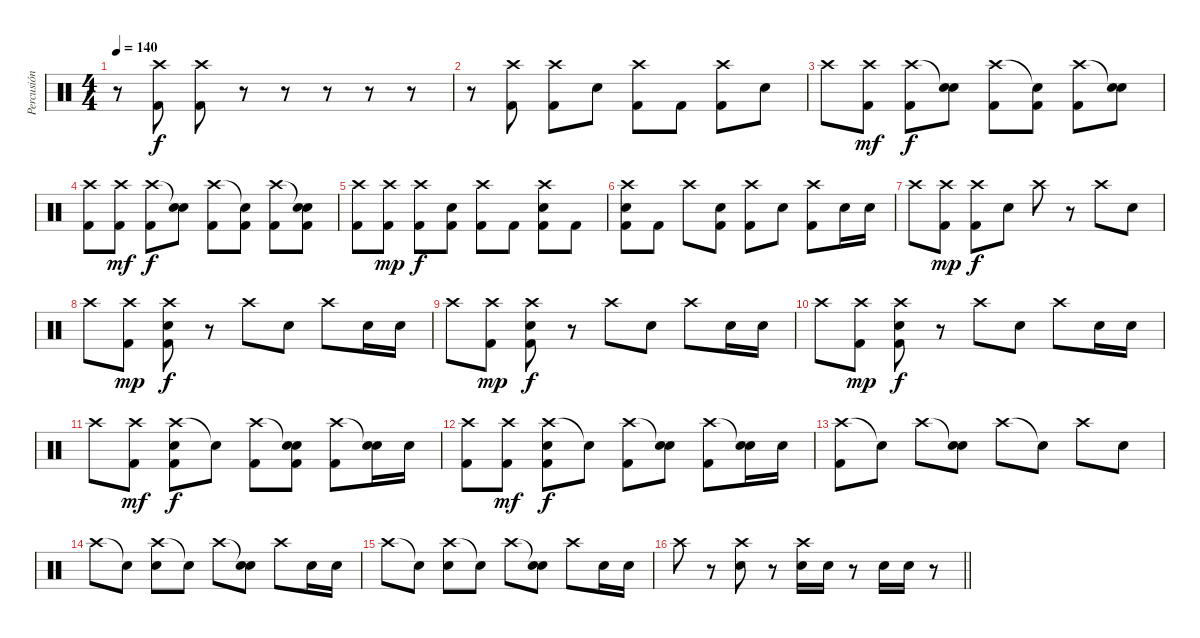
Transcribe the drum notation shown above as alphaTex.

\track ("Percusión" "Percusión") {instrument percussion}
\staff {score}
\articulation defaults
\ts (4 4)
\tempo 140
\clef neutral
\ks c
r.8{dy f} ("Crash high (hit)" "Kick (hit) 2").8 ("Crash high (hit)" "Kick (hit) 2").8 r.8 r.8 r.8 r.8 r.8 |
r.8 ("Crash high (hit)" "Kick (hit) 2").8 ("Crash high (hit)" "Kick (hit) 2").8 "Electric Snare (hit)".8 ("Crash high (hit)" "Kick (hit) 2").8 "Kick (hit) 2".8 ("Crash high (hit)" "Kick (hit) 2").8 "Electric Snare (hit)".8 |
"Crash high (hit)".8 ("Crash high (hit)" "Kick (hit) 2").8{dy mf} ("Crash high (hit)" "Kick (hit) 2").8{dy f} ("Snare (hit)"{t} "Electric Snare (hit)").8 ("Crash high (hit)" "Kick (hit) 2").8 ("Snare (hit)"{t} "Kick (hit) 2").8 ("Crash high (hit)" "Kick (hit) 2").8 ("Snare (hit)"{t} "Electric Snare (hit)").8 |
("Crash high (hit)" "Kick (hit) 2").8 ("Crash high (hit)" "Kick (hit) 2").8{dy mf} ("Crash high (hit)" "Kick (hit) 2").8{dy f} ("Snare (hit)"{t} "Electric Snare (hit)").8 ("Crash high (hit)" "Kick (hit) 2").8 ("Snare (hit)"{t} "Kick (hit) 2").8 ("Crash high (hit)" "Kick (hit) 2").8 ("Snare (hit)"{t} "Electric Snare (hit)" "Kick (hit) 2").8 |
("Crash high (hit)" "Kick (hit) 2").8 ("Crash high (hit)" "Kick (hit) 2").8{dy mp} ("Crash high (hit)" "Kick (hit) 2").8{dy f} ("Electric Snare (hit)" "Kick (hit) 2").8 ("Crash high (hit)" "Kick (hit) 2").8 "Kick (hit) 2".8 ("Crash high (hit)" "Electric Snare (hit)" "Kick (hit) 2").8 "Kick (hit) 2".8 |
("Crash high (hit)" "Electric Snare (hit)" "Kick (hit) 2").8 "Kick (hit) 2".8 "Crash high (hit)".8 ("Electric Snare (hit)" "Kick (hit) 2").8 ("Crash high (hit)" "Kick (hit) 2").8 "Electric Snare (hit)".8 ("Crash high (hit)" "Kick (hit) 2").8 "Electric Snare (hit)".16 "Electric Snare (hit)".16 |
"Crash high (hit)".8 ("Crash high (hit)" "Kick (hit) 2").8{dy mp} ("Crash high (hit)" "Kick (hit) 2").8{dy f} "Electric Snare (hit)".8 "Crash high (hit)".8 r.8 "Crash high (hit)".8 "Electric Snare (hit)".8 |
"Crash high (hit)".8 ("Crash high (hit)" "Kick (hit) 2").8{dy mp} ("Crash high (hit)" "Electric Snare (hit)" "Kick (hit) 2").8{dy f} r.8 "Crash high (hit)".8 "Electric Snare (hit)".8 "Crash high (hit)".8 "Electric Snare (hit)".16 "Electric Snare (hit)".16 |
"Crash high (hit)".8 ("Crash high (hit)" "Kick (hit) 2").8{dy mp} ("Crash high (hit)" "Electric Snare (hit)" "Kick (hit) 2").8{dy f} r.8 "Crash high (hit)".8 "Electric Snare (hit)".8 "Crash high (hit)".8 "Electric Snare (hit)".16 "Electric Snare (hit)".16 |
"Crash high (hit)".8 ("Crash high (hit)" "Kick (hit) 2").8{dy mp} ("Crash high (hit)" "Electric Snare (hit)" "Kick (hit) 2").8{dy f} r.8 "Crash high (hit)".8 "Electric Snare (hit)".8 "Crash high (hit)".8 "Electric Snare (hit)".16 "Electric Snare (hit)".16 |
"Crash high (hit)".8 ("Crash high (hit)" "Kick (hit) 2").8{dy mf} ("Crash high (hit)" "Electric Snare (hit)" "Kick (hit) 2").8{dy f} "Snare (hit)"{t}.8 ("Crash high (hit)" "Kick (hit) 2").8 ("Snare (hit)"{t} "Electric Snare (hit)" "Kick (hit) 2").8 ("Crash high (hit)" "Kick (hit) 2").8 ("Snare (hit)"{t} "Electric Snare (hit)").16 "Electric Snare (hit)".16 |
("Crash high (hit)" "Kick (hit) 2").8 ("Crash high (hit)" "Kick (hit) 2").8{dy mf} ("Crash high (hit)" "Electric Snare (hit)" "Kick (hit) 2").8{dy f} "Snare (hit)"{t}.8 ("Crash high (hit)" "Kick (hit) 2").8 ("Snare (hit)"{t} "Electric Snare (hit)").8 ("Crash high (hit)" "Kick (hit) 2").8 ("Snare (hit)"{t} "Electric Snare (hit)").16 "Electric Snare (hit)".16 |
("Crash high (hit)" "Kick (hit) 2").8 "Snare (hit)"{t}.8 "Crash high (hit)".8 ("Snare (hit)"{t} "Electric Snare (hit)").8 "Crash high (hit)".8 "Snare (hit)"{t}.8 "Crash high (hit)".8 "Electric Snare (hit)".8 |
"Crash high (hit)".8 "Snare (hit)"{t}.8 ("Crash high (hit)" "Electric Snare (hit)").8 "Snare (hit)"{t}.8 "Crash high (hit)".8 ("Snare (hit)"{t} "Electric Snare (hit)").8 "Crash high (hit)".8 "Electric Snare (hit)".16 "Electric Snare (hit)".16 |
"Crash high (hit)".8 "Snare (hit)"{t}.8 ("Crash high (hit)" "Electric Snare (hit)").8 "Snare (hit)"{t}.8 "Crash high (hit)".8 ("Snare (hit)"{t} "Electric Snare (hit)").8 "Crash high (hit)".8 "Electric Snare (hit)".16 "Electric Snare (hit)".16 |
\barLineRight lightlight "Crash high (hit)".8
r.8 ("Crash high (hit)" "Electric Snare (hit)").8 r.8 ("Crash high (hit)" "Electric Snare (hit)").16 "Electric Snare (hit)".16 r.8 "Electric Snare (hit)".16 "Electric Snare (hit)".16 r.8
